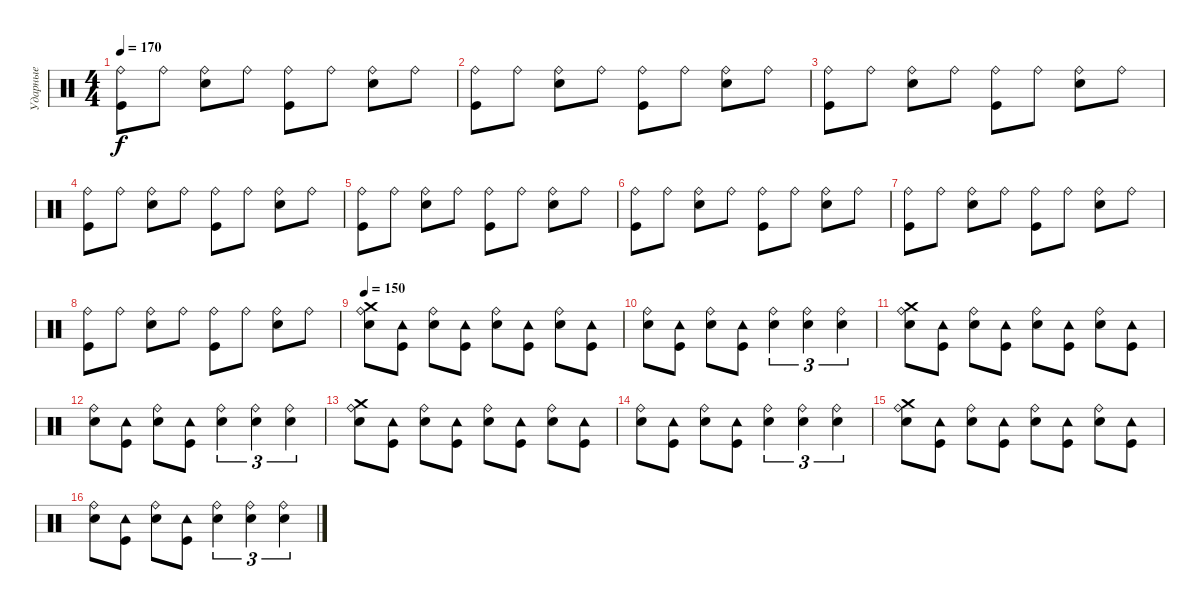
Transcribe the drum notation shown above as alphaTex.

\track ("Ударные" "Ударные") {instrument percussion}
\staff {score}
\articulation defaults
\ts (4 4)
\tempo 170
\clef neutral
\ks c
("Ride (bell)" "Kick (hit)").8{dy f} "Ride (bell)".8 ("Ride (bell)" "Snare (hit) 2").8 "Ride (bell)".8 ("Ride (bell)" "Kick (hit)").8 "Ride (bell)".8 ("Ride (bell)" "Snare (hit) 2").8 "Ride (bell)".8 |
("Ride (bell)" "Kick (hit)").8 "Ride (bell)".8 ("Ride (bell)" "Snare (hit) 2").8 "Ride (bell)".8 ("Ride (bell)" "Kick (hit)").8 "Ride (bell)".8 ("Ride (bell)" "Snare (hit) 2").8 "Ride (bell)".8 |
("Ride (bell)" "Kick (hit)").8 "Ride (bell)".8 ("Ride (bell)" "Snare (hit) 2").8 "Ride (bell)".8 ("Ride (bell)" "Kick (hit)").8 "Ride (bell)".8 ("Ride (bell)" "Snare (hit) 2").8 "Ride (bell)".8 |
("Ride (bell)" "Kick (hit)").8 "Ride (bell)".8 ("Ride (bell)" "Snare (hit) 2").8 "Ride (bell)".8 ("Ride (bell)" "Kick (hit)").8 "Ride (bell)".8 ("Ride (bell)" "Snare (hit) 2").8 "Ride (bell)".8 |
("Ride (bell)" "Kick (hit)").8 "Ride (bell)".8 ("Ride (bell)" "Snare (hit) 2").8 "Ride (bell)".8 ("Ride (bell)" "Kick (hit)").8 "Ride (bell)".8 ("Ride (bell)" "Snare (hit) 2").8 "Ride (bell)".8 |
("Ride (bell)" "Kick (hit)").8 "Ride (bell)".8 ("Ride (bell)" "Snare (hit) 2").8 "Ride (bell)".8 ("Ride (bell)" "Kick (hit)").8 "Ride (bell)".8 ("Ride (bell)" "Snare (hit) 2").8 "Ride (bell)".8 |
("Ride (bell)" "Kick (hit)").8 "Ride (bell)".8 ("Ride (bell)" "Snare (hit) 2").8 "Ride (bell)".8 ("Ride (bell)" "Kick (hit)").8 "Ride (bell)".8 ("Ride (bell)" "Snare (hit) 2").8 "Ride (bell)".8 |
("Ride (bell)" "Kick (hit)").8 "Ride (bell)".8 ("Ride (bell)" "Snare (hit) 2").8 "Ride (bell)".8 ("Ride (bell)" "Kick (hit)").8 "Ride (bell)".8 ("Ride (bell)" "Snare (hit) 2").8 "Ride (bell)".8 |
\tempo 150
("Crash medium (hit)" "Ride (bell)" "Snare (hit) 2").8 ("Tambourine (hit)" "Kick (hit)").8 ("Ride (bell)" "Snare (hit) 2").8 ("Tambourine (hit)" "Kick (hit)").8 ("Ride (bell)" "Snare (hit) 2").8 ("Tambourine (hit)" "Kick (hit)").8 ("Ride (bell)" "Snare (hit) 2").8 ("Tambourine (hit)" "Kick (hit)").8 |
("Ride (bell)" "Snare (hit) 2").8 ("Tambourine (hit)" "Kick (hit)").8 ("Ride (bell)" "Snare (hit) 2").8 ("Tambourine (hit)" "Kick (hit)").8 ("Ride (bell)" "Snare (hit) 2").4{tu (3 2)} ("Ride (bell)" "Snare (hit) 2").4{tu (3 2)} ("Ride (bell)" "Snare (hit) 2").4{tu (3 2)} |
("Crash medium (hit)" "Ride (bell)" "Snare (hit) 2").8 ("Tambourine (hit)" "Kick (hit)").8 ("Ride (bell)" "Snare (hit) 2").8 ("Tambourine (hit)" "Kick (hit)").8 ("Ride (bell)" "Snare (hit) 2").8 ("Tambourine (hit)" "Kick (hit)").8 ("Ride (bell)" "Snare (hit) 2").8 ("Tambourine (hit)" "Kick (hit)").8 |
("Ride (bell)" "Snare (hit) 2").8 ("Tambourine (hit)" "Kick (hit)").8 ("Ride (bell)" "Snare (hit) 2").8 ("Tambourine (hit)" "Kick (hit)").8 ("Ride (bell)" "Snare (hit) 2").4{tu (3 2)} ("Ride (bell)" "Snare (hit) 2").4{tu (3 2)} ("Ride (bell)" "Snare (hit) 2").4{tu (3 2)} |
("Crash medium (hit)" "Ride (bell)" "Snare (hit) 2").8 ("Tambourine (hit)" "Kick (hit)").8 ("Ride (bell)" "Snare (hit) 2").8 ("Tambourine (hit)" "Kick (hit)").8 ("Ride (bell)" "Snare (hit) 2").8 ("Tambourine (hit)" "Kick (hit)").8 ("Ride (bell)" "Snare (hit) 2").8 ("Tambourine (hit)" "Kick (hit)").8 |
("Ride (bell)" "Snare (hit) 2").8 ("Tambourine (hit)" "Kick (hit)").8 ("Ride (bell)" "Snare (hit) 2").8 ("Tambourine (hit)" "Kick (hit)").8 ("Ride (bell)" "Snare (hit) 2").4{tu (3 2)} ("Ride (bell)" "Snare (hit) 2").4{tu (3 2)} ("Ride (bell)" "Snare (hit) 2").4{tu (3 2)} |
("Crash medium (hit)" "Ride (bell)" "Snare (hit) 2").8 ("Tambourine (hit)" "Kick (hit)").8 ("Ride (bell)" "Snare (hit) 2").8 ("Tambourine (hit)" "Kick (hit)").8 ("Ride (bell)" "Snare (hit) 2").8 ("Tambourine (hit)" "Kick (hit)").8 ("Ride (bell)" "Snare (hit) 2").8 ("Tambourine (hit)" "Kick (hit)").8 |
("Ride (bell)" "Snare (hit) 2").8 ("Tambourine (hit)" "Kick (hit)").8 ("Ride (bell)" "Snare (hit) 2").8 ("Tambourine (hit)" "Kick (hit)").8 ("Ride (bell)" "Snare (hit) 2").4{tu (3 2)} ("Ride (bell)" "Snare (hit) 2").4{tu (3 2)} ("Ride (bell)" "Snare (hit) 2").4{tu (3 2)}
